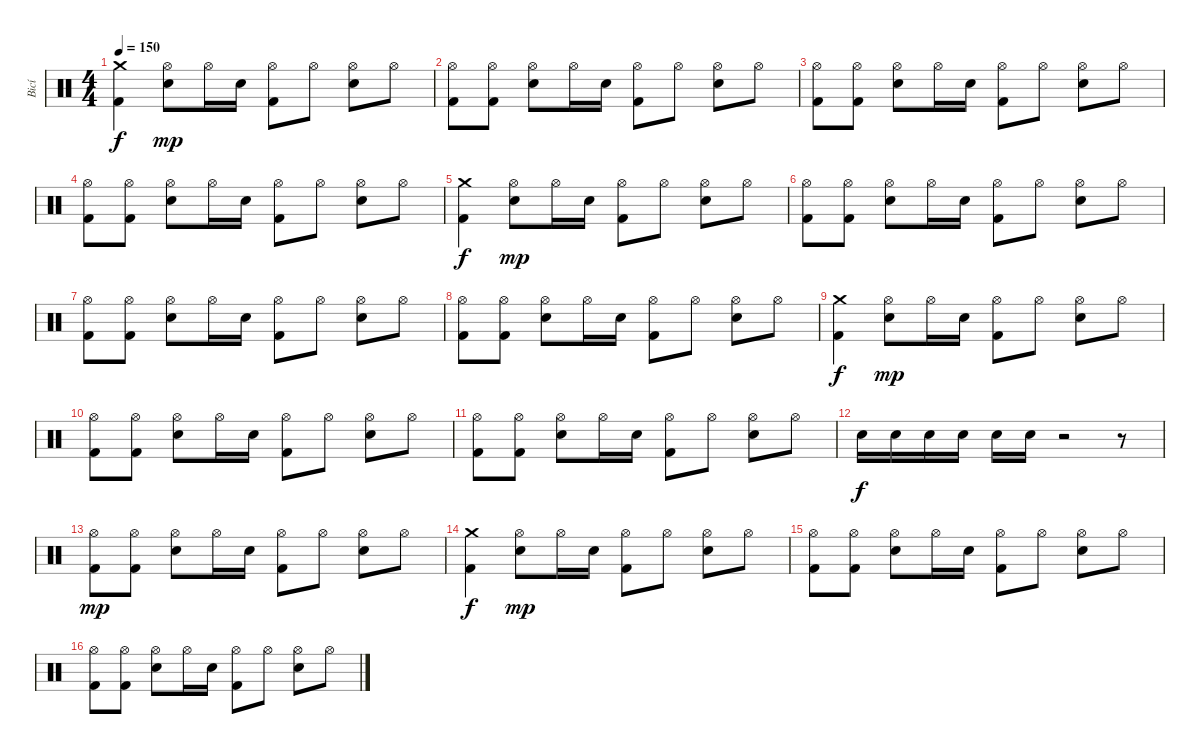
\track ("Bicí" "Bicí") {instrument percussion}
\staff {score}
\articulation defaults
\ts (4 4)
\tempo 150
\clef neutral
\ks c
("Crash medium (hit)" "Kick (hit) 2").4{dy f} ("Hi-Hat (open)" "Electric Snare (hit)").8{dy mp} "Hi-Hat (open)".16 "Electric Snare (hit)".16 ("Hi-Hat (open)" "Kick (hit) 2").8 "Hi-Hat (open)".8 ("Hi-Hat (open)" "Electric Snare (hit)").8 "Hi-Hat (open)".8 |
("Hi-Hat (open)" "Kick (hit) 2").8 ("Hi-Hat (open)" "Kick (hit) 2").8 ("Hi-Hat (open)" "Electric Snare (hit)").8 "Hi-Hat (open)".16 "Electric Snare (hit)".16 ("Hi-Hat (open)" "Kick (hit) 2").8 "Hi-Hat (open)".8 ("Hi-Hat (open)" "Electric Snare (hit)").8 "Hi-Hat (open)".8 |
("Hi-Hat (open)" "Kick (hit) 2").8 ("Hi-Hat (open)" "Kick (hit) 2").8 ("Hi-Hat (open)" "Electric Snare (hit)").8 "Hi-Hat (open)".16 "Electric Snare (hit)".16 ("Hi-Hat (open)" "Kick (hit) 2").8 "Hi-Hat (open)".8 ("Hi-Hat (open)" "Electric Snare (hit)").8 "Hi-Hat (open)".8 |
("Hi-Hat (open)" "Kick (hit) 2").8 ("Hi-Hat (open)" "Kick (hit) 2").8 ("Hi-Hat (open)" "Electric Snare (hit)").8 "Hi-Hat (open)".16 "Electric Snare (hit)".16 ("Hi-Hat (open)" "Kick (hit) 2").8 "Hi-Hat (open)".8 ("Hi-Hat (open)" "Electric Snare (hit)").8 "Hi-Hat (open)".8 |
("Crash medium (hit)" "Kick (hit) 2").4{dy f} ("Hi-Hat (open)" "Electric Snare (hit)").8{dy mp} "Hi-Hat (open)".16 "Electric Snare (hit)".16 ("Hi-Hat (open)" "Kick (hit) 2").8 "Hi-Hat (open)".8 ("Hi-Hat (open)" "Electric Snare (hit)").8 "Hi-Hat (open)".8 |
("Hi-Hat (open)" "Kick (hit) 2").8 ("Hi-Hat (open)" "Kick (hit) 2").8 ("Hi-Hat (open)" "Electric Snare (hit)").8 "Hi-Hat (open)".16 "Electric Snare (hit)".16 ("Hi-Hat (open)" "Kick (hit) 2").8 "Hi-Hat (open)".8 ("Hi-Hat (open)" "Electric Snare (hit)").8 "Hi-Hat (open)".8 |
("Hi-Hat (open)" "Kick (hit) 2").8 ("Hi-Hat (open)" "Kick (hit) 2").8 ("Hi-Hat (open)" "Electric Snare (hit)").8 "Hi-Hat (open)".16 "Electric Snare (hit)".16 ("Hi-Hat (open)" "Kick (hit) 2").8 "Hi-Hat (open)".8 ("Hi-Hat (open)" "Electric Snare (hit)").8 "Hi-Hat (open)".8 |
("Hi-Hat (open)" "Kick (hit) 2").8 ("Hi-Hat (open)" "Kick (hit) 2").8 ("Hi-Hat (open)" "Electric Snare (hit)").8 "Hi-Hat (open)".16 "Electric Snare (hit)".16 ("Hi-Hat (open)" "Kick (hit) 2").8 "Hi-Hat (open)".8 ("Hi-Hat (open)" "Electric Snare (hit)").8 "Hi-Hat (open)".8 |
("Crash medium (hit)" "Kick (hit) 2").4{dy f} ("Hi-Hat (open)" "Electric Snare (hit)").8{dy mp} "Hi-Hat (open)".16 "Electric Snare (hit)".16 ("Hi-Hat (open)" "Kick (hit) 2").8 "Hi-Hat (open)".8 ("Hi-Hat (open)" "Electric Snare (hit)").8 "Hi-Hat (open)".8 |
("Hi-Hat (open)" "Kick (hit) 2").8 ("Hi-Hat (open)" "Kick (hit) 2").8 ("Hi-Hat (open)" "Electric Snare (hit)").8 "Hi-Hat (open)".16 "Electric Snare (hit)".16 ("Hi-Hat (open)" "Kick (hit) 2").8 "Hi-Hat (open)".8 ("Hi-Hat (open)" "Electric Snare (hit)").8 "Hi-Hat (open)".8 |
("Hi-Hat (open)" "Kick (hit) 2").8 ("Hi-Hat (open)" "Kick (hit) 2").8 ("Hi-Hat (open)" "Electric Snare (hit)").8 "Hi-Hat (open)".16 "Electric Snare (hit)".16 ("Hi-Hat (open)" "Kick (hit) 2").8 "Hi-Hat (open)".8 ("Hi-Hat (open)" "Electric Snare (hit)").8 "Hi-Hat (open)".8 |
"Snare (hit) 2".16{dy f} "Snare (hit) 2".16 "Snare (hit) 2".16 "Snare (hit) 2".16 "Snare (hit) 2".16 "Snare (hit) 2".16 r.2 r.8 |
("Hi-Hat (open)" "Kick (hit) 2").8{dy mp} ("Hi-Hat (open)" "Kick (hit) 2").8 ("Hi-Hat (open)" "Electric Snare (hit)").8 "Hi-Hat (open)".16 "Electric Snare (hit)".16 ("Hi-Hat (open)" "Kick (hit) 2").8 "Hi-Hat (open)".8 ("Hi-Hat (open)" "Electric Snare (hit)").8 "Hi-Hat (open)".8 |
("Crash medium (hit)" "Kick (hit) 2").4{dy f} ("Hi-Hat (open)" "Electric Snare (hit)").8{dy mp} "Hi-Hat (open)".16 "Electric Snare (hit)".16 ("Hi-Hat (open)" "Kick (hit) 2").8 "Hi-Hat (open)".8 ("Hi-Hat (open)" "Electric Snare (hit)").8 "Hi-Hat (open)".8 |
("Hi-Hat (open)" "Kick (hit) 2").8 ("Hi-Hat (open)" "Kick (hit) 2").8 ("Hi-Hat (open)" "Electric Snare (hit)").8 "Hi-Hat (open)".16 "Electric Snare (hit)".16 ("Hi-Hat (open)" "Kick (hit) 2").8 "Hi-Hat (open)".8 ("Hi-Hat (open)" "Electric Snare (hit)").8 "Hi-Hat (open)".8 |
("Hi-Hat (open)" "Kick (hit) 2").8 ("Hi-Hat (open)" "Kick (hit) 2").8 ("Hi-Hat (open)" "Electric Snare (hit)").8 "Hi-Hat (open)".16 "Electric Snare (hit)".16 ("Hi-Hat (open)" "Kick (hit) 2").8 "Hi-Hat (open)".8 ("Hi-Hat (open)" "Electric Snare (hit)").8 "Hi-Hat (open)".8
